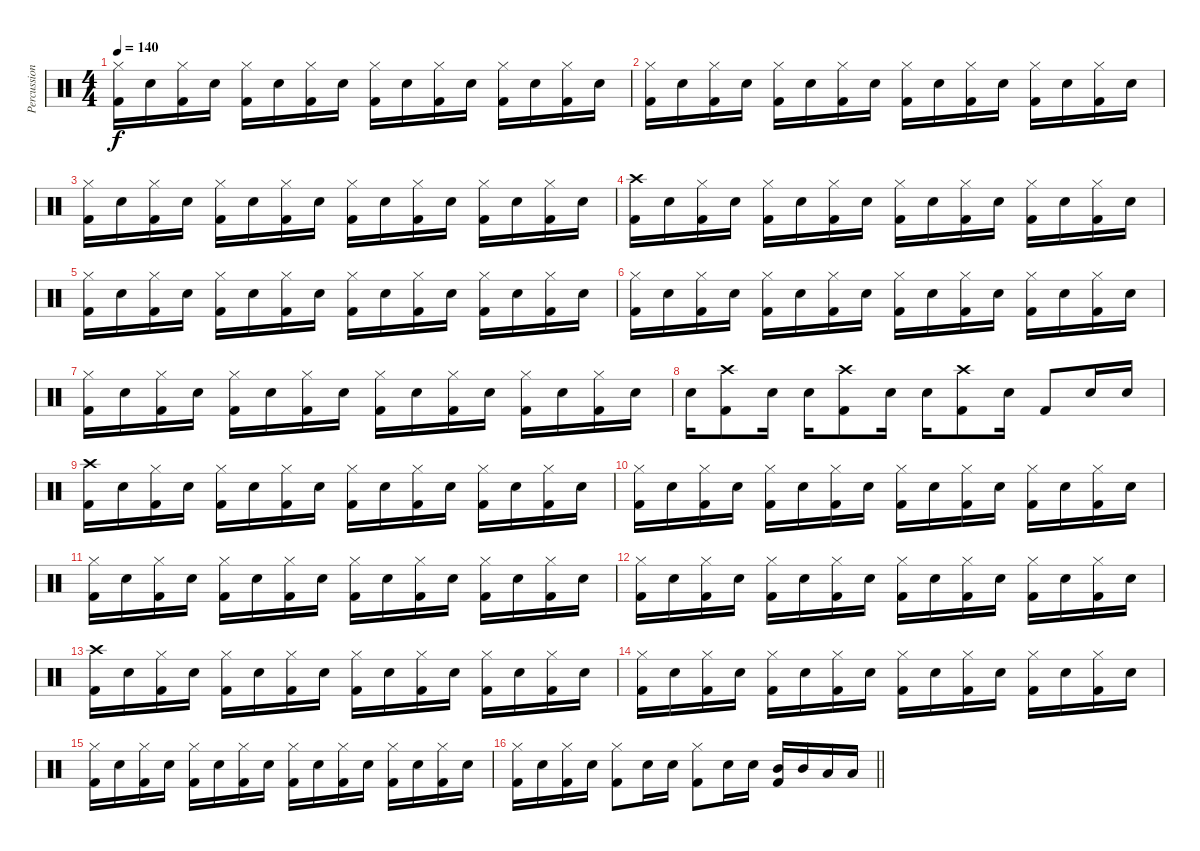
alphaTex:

\track ("Percussion" "Percussion") {instrument percussion}
\staff {score}
\articulation defaults
\ts (4 4)
\tempo 140
\clef neutral
\ks c
("Hi-Hat (closed)" "Kick (hit) 2").16{dy f} "Snare (hit) 2".16 ("Hi-Hat (closed)" "Kick (hit) 2").16 "Snare (hit) 2".16 ("Hi-Hat (closed)" "Kick (hit) 2").16 "Snare (hit) 2".16 ("Hi-Hat (closed)" "Kick (hit) 2").16 "Snare (hit) 2".16 ("Hi-Hat (closed)" "Kick (hit) 2").16 "Snare (hit) 2".16 ("Hi-Hat (closed)" "Kick (hit) 2").16 "Snare (hit) 2".16 ("Hi-Hat (closed)" "Kick (hit) 2").16 "Snare (hit) 2".16 ("Hi-Hat (closed)" "Kick (hit) 2").16 "Snare (hit) 2".16 |
("Hi-Hat (closed)" "Kick (hit) 2").16 "Snare (hit) 2".16 ("Hi-Hat (closed)" "Kick (hit) 2").16 "Snare (hit) 2".16 ("Hi-Hat (closed)" "Kick (hit) 2").16 "Snare (hit) 2".16 ("Hi-Hat (closed)" "Kick (hit) 2").16 "Snare (hit) 2".16 ("Hi-Hat (closed)" "Kick (hit) 2").16 "Snare (hit) 2".16 ("Hi-Hat (closed)" "Kick (hit) 2").16 "Snare (hit) 2".16 ("Hi-Hat (closed)" "Kick (hit) 2").16 "Snare (hit) 2".16 ("Hi-Hat (closed)" "Kick (hit) 2").16 "Snare (hit) 2".16 |
("Hi-Hat (closed)" "Kick (hit) 2").16 "Snare (hit) 2".16 ("Hi-Hat (closed)" "Kick (hit) 2").16 "Snare (hit) 2".16 ("Hi-Hat (closed)" "Kick (hit) 2").16 "Snare (hit) 2".16 ("Hi-Hat (closed)" "Kick (hit) 2").16 "Snare (hit) 2".16 ("Hi-Hat (closed)" "Kick (hit) 2").16 "Snare (hit) 2".16 ("Hi-Hat (closed)" "Kick (hit) 2").16 "Snare (hit) 2".16 ("Hi-Hat (closed)" "Kick (hit) 2").16 "Snare (hit) 2".16 ("Hi-Hat (closed)" "Kick (hit) 2").16 "Snare (hit) 2".16 |
("Crash high (hit)" "Kick (hit) 2").16 "Snare (hit) 2".16 ("Hi-Hat (closed)" "Kick (hit) 2").16 "Snare (hit) 2".16 ("Hi-Hat (closed)" "Kick (hit) 2").16 "Snare (hit) 2".16 ("Hi-Hat (closed)" "Kick (hit) 2").16 "Snare (hit) 2".16 ("Hi-Hat (closed)" "Kick (hit) 2").16 "Snare (hit) 2".16 ("Hi-Hat (closed)" "Kick (hit) 2").16 "Snare (hit) 2".16 ("Hi-Hat (closed)" "Kick (hit) 2").16 "Snare (hit) 2".16 ("Hi-Hat (closed)" "Kick (hit) 2").16 "Snare (hit) 2".16 |
("Hi-Hat (closed)" "Kick (hit) 2").16 "Snare (hit) 2".16 ("Hi-Hat (closed)" "Kick (hit) 2").16 "Snare (hit) 2".16 ("Hi-Hat (closed)" "Kick (hit) 2").16 "Snare (hit) 2".16 ("Hi-Hat (closed)" "Kick (hit) 2").16 "Snare (hit) 2".16 ("Hi-Hat (closed)" "Kick (hit) 2").16 "Snare (hit) 2".16 ("Hi-Hat (closed)" "Kick (hit) 2").16 "Snare (hit) 2".16 ("Hi-Hat (closed)" "Kick (hit) 2").16 "Snare (hit) 2".16 ("Hi-Hat (closed)" "Kick (hit) 2").16 "Snare (hit) 2".16 |
("Hi-Hat (closed)" "Kick (hit) 2").16 "Snare (hit) 2".16 ("Hi-Hat (closed)" "Kick (hit) 2").16 "Snare (hit) 2".16 ("Hi-Hat (closed)" "Kick (hit) 2").16 "Snare (hit) 2".16 ("Hi-Hat (closed)" "Kick (hit) 2").16 "Snare (hit) 2".16 ("Hi-Hat (closed)" "Kick (hit) 2").16 "Snare (hit) 2".16 ("Hi-Hat (closed)" "Kick (hit) 2").16 "Snare (hit) 2".16 ("Hi-Hat (closed)" "Kick (hit) 2").16 "Snare (hit) 2".16 ("Hi-Hat (closed)" "Kick (hit) 2").16 "Snare (hit) 2".16 |
("Hi-Hat (closed)" "Kick (hit) 2").16 "Snare (hit) 2".16 ("Hi-Hat (closed)" "Kick (hit) 2").16 "Snare (hit) 2".16 ("Hi-Hat (closed)" "Kick (hit) 2").16 "Snare (hit) 2".16 ("Hi-Hat (closed)" "Kick (hit) 2").16 "Snare (hit) 2".16 ("Hi-Hat (closed)" "Kick (hit) 2").16 "Snare (hit) 2".16 ("Hi-Hat (closed)" "Kick (hit) 2").16 "Snare (hit) 2".16 ("Hi-Hat (closed)" "Kick (hit) 2").16 "Snare (hit) 2".16 ("Hi-Hat (closed)" "Kick (hit) 2").16 "Snare (hit) 2".16 |
"Snare (hit) 2".16 ("Crash high (hit)" "Kick (hit) 2").8 "Snare (hit) 2".16 "Snare (hit) 2".16 ("Crash high (hit)" "Kick (hit) 2").8 "Snare (hit) 2".16 "Snare (hit) 2".16 ("Crash high (hit)" "Kick (hit) 2").8 "Snare (hit) 2".16 "Kick (hit) 2".8 "Snare (hit) 2".16 "Snare (hit) 2".16 |
("Crash high (hit)" "Kick (hit) 2").16 "Snare (hit) 2".16 ("Hi-Hat (closed)" "Kick (hit) 2").16 "Snare (hit) 2".16 ("Hi-Hat (closed)" "Kick (hit) 2").16 "Snare (hit) 2".16 ("Hi-Hat (closed)" "Kick (hit) 2").16 "Snare (hit) 2".16 ("Hi-Hat (closed)" "Kick (hit) 2").16 "Snare (hit) 2".16 ("Hi-Hat (closed)" "Kick (hit) 2").16 "Snare (hit) 2".16 ("Hi-Hat (closed)" "Kick (hit) 2").16 "Snare (hit) 2".16 ("Hi-Hat (closed)" "Kick (hit) 2").16 "Snare (hit) 2".16 |
("Hi-Hat (closed)" "Kick (hit) 2").16 "Snare (hit) 2".16 ("Hi-Hat (closed)" "Kick (hit) 2").16 "Snare (hit) 2".16 ("Hi-Hat (closed)" "Kick (hit) 2").16 "Snare (hit) 2".16 ("Hi-Hat (closed)" "Kick (hit) 2").16 "Snare (hit) 2".16 ("Hi-Hat (closed)" "Kick (hit) 2").16 "Snare (hit) 2".16 ("Hi-Hat (closed)" "Kick (hit) 2").16 "Snare (hit) 2".16 ("Hi-Hat (closed)" "Kick (hit) 2").16 "Snare (hit) 2".16 ("Hi-Hat (closed)" "Kick (hit) 2").16 "Snare (hit) 2".16 |
("Hi-Hat (closed)" "Kick (hit) 2").16 "Snare (hit) 2".16 ("Hi-Hat (closed)" "Kick (hit) 2").16 "Snare (hit) 2".16 ("Hi-Hat (closed)" "Kick (hit) 2").16 "Snare (hit) 2".16 ("Hi-Hat (closed)" "Kick (hit) 2").16 "Snare (hit) 2".16 ("Hi-Hat (closed)" "Kick (hit) 2").16 "Snare (hit) 2".16 ("Hi-Hat (closed)" "Kick (hit) 2").16 "Snare (hit) 2".16 ("Hi-Hat (closed)" "Kick (hit) 2").16 "Snare (hit) 2".16 ("Hi-Hat (closed)" "Kick (hit) 2").16 "Snare (hit) 2".16 |
("Hi-Hat (closed)" "Kick (hit) 2").16 "Snare (hit) 2".16 ("Hi-Hat (closed)" "Kick (hit) 2").16 "Snare (hit) 2".16 ("Hi-Hat (closed)" "Kick (hit) 2").16 "Snare (hit) 2".16 ("Hi-Hat (closed)" "Kick (hit) 2").16 "Snare (hit) 2".16 ("Hi-Hat (closed)" "Kick (hit) 2").16 "Snare (hit) 2".16 ("Hi-Hat (closed)" "Kick (hit) 2").16 "Snare (hit) 2".16 ("Hi-Hat (closed)" "Kick (hit) 2").16 "Snare (hit) 2".16 ("Hi-Hat (closed)" "Kick (hit) 2").16 "Snare (hit) 2".16 |
("Crash high (hit)" "Kick (hit) 2").16 "Snare (hit) 2".16 ("Hi-Hat (closed)" "Kick (hit) 2").16 "Snare (hit) 2".16 ("Hi-Hat (closed)" "Kick (hit) 2").16 "Snare (hit) 2".16 ("Hi-Hat (closed)" "Kick (hit) 2").16 "Snare (hit) 2".16 ("Hi-Hat (closed)" "Kick (hit) 2").16 "Snare (hit) 2".16 ("Hi-Hat (closed)" "Kick (hit) 2").16 "Snare (hit) 2".16 ("Hi-Hat (closed)" "Kick (hit) 2").16 "Snare (hit) 2".16 ("Hi-Hat (closed)" "Kick (hit) 2").16 "Snare (hit) 2".16 |
("Hi-Hat (closed)" "Kick (hit) 2").16 "Snare (hit) 2".16 ("Hi-Hat (closed)" "Kick (hit) 2").16 "Snare (hit) 2".16 ("Hi-Hat (closed)" "Kick (hit) 2").16 "Snare (hit) 2".16 ("Hi-Hat (closed)" "Kick (hit) 2").16 "Snare (hit) 2".16 ("Hi-Hat (closed)" "Kick (hit) 2").16 "Snare (hit) 2".16 ("Hi-Hat (closed)" "Kick (hit) 2").16 "Snare (hit) 2".16 ("Hi-Hat (closed)" "Kick (hit) 2").16 "Snare (hit) 2".16 ("Hi-Hat (closed)" "Kick (hit) 2").16 "Snare (hit) 2".16 |
("Hi-Hat (closed)" "Kick (hit) 2").16 "Snare (hit) 2".16 ("Hi-Hat (closed)" "Kick (hit) 2").16 "Snare (hit) 2".16 ("Hi-Hat (closed)" "Kick (hit) 2").16 "Snare (hit) 2".16 ("Hi-Hat (closed)" "Kick (hit) 2").16 "Snare (hit) 2".16 ("Hi-Hat (closed)" "Kick (hit) 2").16 "Snare (hit) 2".16 ("Hi-Hat (closed)" "Kick (hit) 2").16 "Snare (hit) 2".16 ("Hi-Hat (closed)" "Kick (hit) 2").16 "Snare (hit) 2".16 ("Hi-Hat (closed)" "Kick (hit) 2").16 "Snare (hit) 2".16 |
\barLineRight lightlight
("Hi-Hat (closed)" "Kick (hit) 2").16 "Snare (hit) 2".16 ("Hi-Hat (closed)" "Kick (hit) 2").16 "Snare (hit) 2".16 ("Hi-Hat (closed)" "Kick (hit) 2").8 "Snare (hit) 2".16 "Snare (hit) 2".16 ("Hi-Hat (closed)" "Kick (hit) 2").8 "Snare (hit) 2".16 "Snare (hit) 2".16 ("Mid Tom (hit)" "Kick (hit) 2").16 "Mid Tom (hit)".16 "Low Tom (hit)".16 "Low Tom (hit)".16
